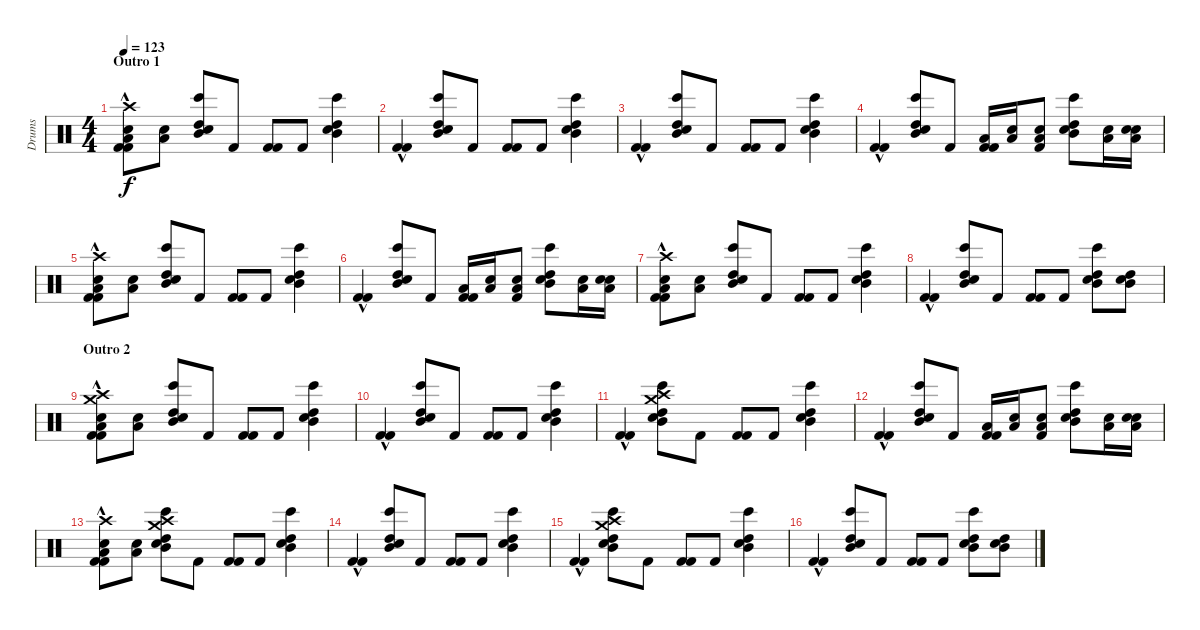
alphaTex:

\track ("Drums" "Drums") {instrument percussion}
\staff {score}
\articulation defaults
\ts (4 4)
\section ("" "Outro 1")
\tempo 123
\clef neutral
\ks c
("Crash high (hit)" "Snare (hit) 2" "Low Floor Tom (hit)" "Kick (hit) 2"{hac} "Kick (hit) 2"{hac}).8{dy f} ("Snare (hit) 2" "Low Floor Tom (hit)").8 ("Bongo High (hit)" "High Tom (hit)" "Mid Tom (hit)" "Snare (hit) 2").8 "Kick (hit) 2".8 ("Kick (hit) 2" "Kick (hit) 2").8 "Kick (hit) 2".8 ("Bongo High (hit)" "High Tom (hit)" "Mid Tom (hit)" "Snare (hit) 2").4 |
("Kick (hit) 2"{hac} "Kick (hit) 2"{hac}).4 ("Bongo High (hit)" "High Tom (hit)" "Mid Tom (hit)" "Snare (hit) 2").8 "Kick (hit) 2".8 ("Kick (hit) 2" "Kick (hit) 2").8 "Kick (hit) 2".8 ("Bongo High (hit)" "High Tom (hit)" "Mid Tom (hit)" "Snare (hit) 2").4 |
("Kick (hit) 2"{hac} "Kick (hit) 2"{hac}).4 ("Bongo High (hit)" "High Tom (hit)" "Mid Tom (hit)" "Snare (hit) 2").8 "Kick (hit) 2".8 ("Kick (hit) 2" "Kick (hit) 2").8 "Kick (hit) 2".8 ("Bongo High (hit)" "High Tom (hit)" "Mid Tom (hit)" "Snare (hit) 2").4 |
("Kick (hit) 2"{hac} "Kick (hit) 2"{hac}).4 ("Bongo High (hit)" "High Tom (hit)" "Mid Tom (hit)" "Snare (hit) 2").8 "Kick (hit) 2".8 ("Low Floor Tom (hit)" "Kick (hit) 2" "Kick (hit) 2").16 ("Snare (hit) 2" "Low Floor Tom (hit)").16 ("Snare (hit) 2" "Low Floor Tom (hit)" "Kick (hit) 2").8 ("Bongo High (hit)" "High Tom (hit)" "Mid Tom (hit)" "Snare (hit) 2").8 ("Low Floor Tom (hit)" "Snare (hit) 2").16 ("Snare (hit) 2" "Low Floor Tom (hit)" "Snare (hit) 2").16 |
("Crash high (hit)" "Snare (hit) 2" "Low Floor Tom (hit)" "Kick (hit) 2"{hac} "Kick (hit) 2"{hac}).8 ("Snare (hit) 2" "Low Floor Tom (hit)").8 ("Bongo High (hit)" "High Tom (hit)" "Mid Tom (hit)" "Snare (hit) 2").8 "Kick (hit) 2".8 ("Kick (hit) 2" "Kick (hit) 2").8 "Kick (hit) 2".8 ("Bongo High (hit)" "High Tom (hit)" "Mid Tom (hit)" "Snare (hit) 2").4 |
("Kick (hit) 2"{hac} "Kick (hit) 2"{hac}).4 ("Bongo High (hit)" "High Tom (hit)" "Mid Tom (hit)" "Snare (hit) 2").8 "Kick (hit) 2".8 ("Low Floor Tom (hit)" "Kick (hit) 2" "Kick (hit) 2").16 ("Snare (hit) 2" "Low Floor Tom (hit)").16 ("Snare (hit) 2" "Low Floor Tom (hit)" "Kick (hit) 2").8 ("Bongo High (hit)" "High Tom (hit)" "Mid Tom (hit)" "Snare (hit) 2").8 ("Low Floor Tom (hit)" "Snare (hit) 2").16 ("Snare (hit) 2" "Low Floor Tom (hit)" "Snare (hit) 2").16 |
("Crash high (hit)" "Snare (hit) 2" "Low Floor Tom (hit)" "Kick (hit) 2"{hac} "Kick (hit) 2"{hac}).8 ("Snare (hit) 2" "Low Floor Tom (hit)").8 ("Bongo High (hit)" "High Tom (hit)" "Mid Tom (hit)" "Snare (hit) 2").8 "Kick (hit) 2".8 ("Kick (hit) 2" "Kick (hit) 2").8 "Kick (hit) 2".8 ("Bongo High (hit)" "High Tom (hit)" "Mid Tom (hit)" "Snare (hit) 2").4 |
("Kick (hit) 2"{hac} "Kick (hit) 2"{hac}).4 ("Bongo High (hit)" "High Tom (hit)" "Mid Tom (hit)" "Snare (hit) 2").8 "Kick (hit) 2".8 ("Kick (hit) 2" "Kick (hit) 2").8 "Kick (hit) 2".8 ("Bongo High (hit)" "High Tom (hit)" "Mid Tom (hit)" "Snare (hit) 2").8 ("High Tom (hit)" "Mid Tom (hit)" "Snare (hit) 2").8 |
\section ("" "Outro 2")
("Crash high (hit)" "Snare (hit) 2" "Low Floor Tom (hit)" "Kick (hit) 2"{hac} "Crash medium (hit)" "Kick (hit) 2"{hac}).8 ("Snare (hit) 2" "Low Floor Tom (hit)").8 ("Bongo High (hit)" "High Tom (hit)" "Mid Tom (hit)" "Snare (hit) 2").8 "Kick (hit) 2".8 ("Kick (hit) 2" "Kick (hit) 2").8 "Kick (hit) 2".8 ("Bongo High (hit)" "High Tom (hit)" "Mid Tom (hit)" "Snare (hit) 2").4 |
("Kick (hit) 2"{hac} "Kick (hit) 2"{hac}).4 ("Bongo High (hit)" "High Tom (hit)" "Mid Tom (hit)" "Snare (hit) 2").8 "Kick (hit) 2".8 ("Kick (hit) 2" "Kick (hit) 2").8 "Kick (hit) 2".8 ("Bongo High (hit)" "High Tom (hit)" "Mid Tom (hit)" "Snare (hit) 2").4 |
("Kick (hit) 2"{hac} "Kick (hit) 2"{hac}).4 ("Crash high (hit)" "Bongo High (hit)" "High Tom (hit)" "Mid Tom (hit)" "Snare (hit) 2" "Crash medium (hit)").8 "Kick (hit) 2".8 ("Kick (hit) 2" "Kick (hit) 2").8 "Kick (hit) 2".8 ("Bongo High (hit)" "High Tom (hit)" "Mid Tom (hit)" "Snare (hit) 2").4 |
("Kick (hit) 2"{hac} "Kick (hit) 2"{hac}).4 ("Bongo High (hit)" "High Tom (hit)" "Mid Tom (hit)" "Snare (hit) 2").8 "Kick (hit) 2".8 ("Low Floor Tom (hit)" "Kick (hit) 2" "Kick (hit) 2").16 ("Snare (hit) 2" "Low Floor Tom (hit)").16 ("Snare (hit) 2" "Low Floor Tom (hit)" "Kick (hit) 2").8 ("Bongo High (hit)" "High Tom (hit)" "Mid Tom (hit)" "Snare (hit) 2").8 ("Low Floor Tom (hit)" "Snare (hit) 2").16 ("Snare (hit) 2" "Low Floor Tom (hit)" "Snare (hit) 2").16 |
("Crash high (hit)" "Snare (hit) 2" "Low Floor Tom (hit)" "Kick (hit) 2"{hac} "Kick (hit) 2"{hac}).8 ("Snare (hit) 2" "Low Floor Tom (hit)").8 ("Crash high (hit)" "Bongo High (hit)" "High Tom (hit)" "Mid Tom (hit)" "Snare (hit) 2" "Crash medium (hit)").8 "Kick (hit) 2".8 ("Kick (hit) 2" "Kick (hit) 2").8 "Kick (hit) 2".8 ("Bongo High (hit)" "High Tom (hit)" "Mid Tom (hit)" "Snare (hit) 2").4 |
("Kick (hit) 2"{hac} "Kick (hit) 2"{hac}).4 ("Bongo High (hit)" "High Tom (hit)" "Mid Tom (hit)" "Snare (hit) 2").8 "Kick (hit) 2".8 ("Kick (hit) 2" "Kick (hit) 2").8 "Kick (hit) 2".8 ("Bongo High (hit)" "High Tom (hit)" "Mid Tom (hit)" "Snare (hit) 2").4 |
("Kick (hit) 2"{hac} "Kick (hit) 2"{hac}).4 ("Crash high (hit)" "Bongo High (hit)" "High Tom (hit)" "Mid Tom (hit)" "Snare (hit) 2" "Crash medium (hit)").8 "Kick (hit) 2".8 ("Kick (hit) 2" "Kick (hit) 2").8 "Kick (hit) 2".8 ("Bongo High (hit)" "High Tom (hit)" "Mid Tom (hit)" "Snare (hit) 2").4 |
("Kick (hit) 2"{hac} "Kick (hit) 2"{hac}).4 ("Bongo High (hit)" "High Tom (hit)" "Mid Tom (hit)" "Snare (hit) 2").8 "Kick (hit) 2".8 ("Kick (hit) 2" "Kick (hit) 2").8 "Kick (hit) 2".8 ("Bongo High (hit)" "High Tom (hit)" "Mid Tom (hit)" "Snare (hit) 2").8 ("High Tom (hit)" "Mid Tom (hit)" "Snare (hit) 2").8
